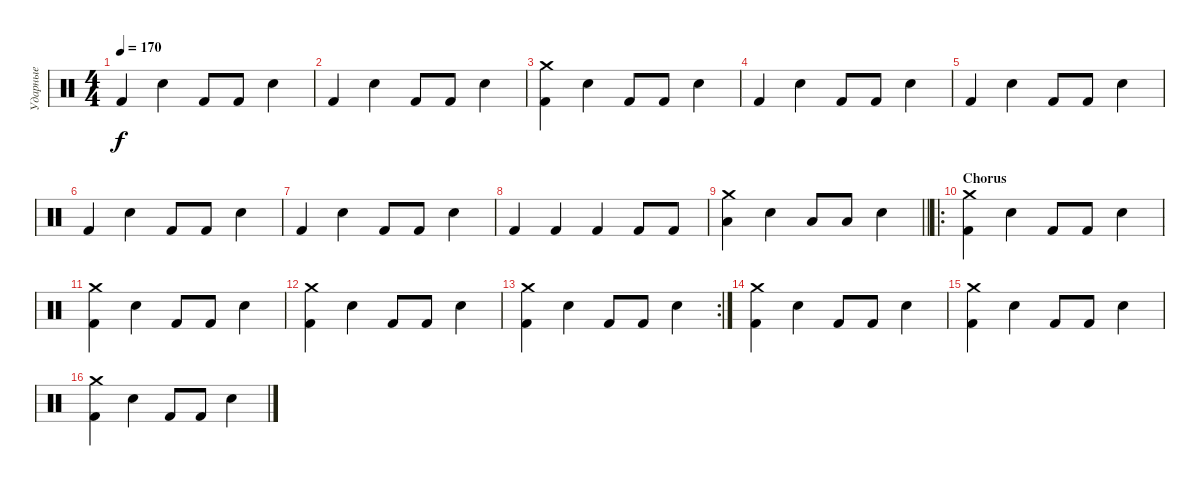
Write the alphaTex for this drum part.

\track ("Ударные" "Ударные") {instrument percussion}
\staff {score}
\articulation defaults
\ts (4 4)
\tempo 170
\clef neutral
\ks c "Kick (hit) 2".4{dy f} "Snare (hit) 2".4 "Kick (hit) 2".8 "Kick (hit) 2".8 "Snare (hit) 2".4
|
"Kick (hit) 2".4 "Snare (hit) 2".4 "Kick (hit) 2".8 "Kick (hit) 2".8 "Snare (hit) 2".4 |
("Kick (hit) 2" "Crash medium (hit)").4 "Snare (hit) 2".4 "Kick (hit) 2".8 "Kick (hit) 2".8 "Snare (hit) 2".4 |
"Kick (hit) 2".4 "Snare (hit) 2".4 "Kick (hit) 2".8 "Kick (hit) 2".8 "Snare (hit) 2".4 |
"Kick (hit) 2".4 "Snare (hit) 2".4 "Kick (hit) 2".8 "Kick (hit) 2".8 "Snare (hit) 2".4 |
"Kick (hit) 2".4 "Snare (hit) 2".4 "Kick (hit) 2".8 "Kick (hit) 2".8 "Snare (hit) 2".4 |
"Kick (hit) 2".4 "Snare (hit) 2".4 "Kick (hit) 2".8 "Kick (hit) 2".8 "Snare (hit) 2".4 |
"Kick (hit) 2".4 "Kick (hit) 2".4 "Kick (hit) 2".4 "Kick (hit) 2".8 "Kick (hit) 2".8 |
\barLineRight lightlight
("Crash medium (hit)" "Low Floor Tom (hit)").4 "Snare (hit) 2".4 "Low Floor Tom (hit)".8 "Low Floor Tom (hit)".8 "Snare (hit) 2".4 |
\ro
\section ("" "Chorus")
("Kick (hit) 2" "Crash medium (hit)").4 "Snare (hit) 2".4 "Kick (hit) 2".8 "Kick (hit) 2".8 "Snare (hit) 2".4 |
("Kick (hit) 2" "Crash medium (hit)").4 "Snare (hit) 2".4 "Kick (hit) 2".8 "Kick (hit) 2".8 "Snare (hit) 2".4 |
("Kick (hit) 2" "Crash medium (hit)").4 "Snare (hit) 2".4 "Kick (hit) 2".8 "Kick (hit) 2".8 "Snare (hit) 2".4 |
\rc 2
("Kick (hit) 2" "Crash medium (hit)").4 "Snare (hit) 2".4 "Kick (hit) 2".8 "Kick (hit) 2".8 "Snare (hit) 2".4 |
("Kick (hit) 2" "Crash medium (hit)").4 "Snare (hit) 2".4 "Kick (hit) 2".8 "Kick (hit) 2".8 "Snare (hit) 2".4 |
("Kick (hit) 2" "Crash medium (hit)").4 "Snare (hit) 2".4 "Kick (hit) 2".8 "Kick (hit) 2".8 "Snare (hit) 2".4 |
("Kick (hit) 2" "Crash medium (hit)").4 "Snare (hit) 2".4 "Kick (hit) 2".8 "Kick (hit) 2".8 "Snare (hit) 2".4
